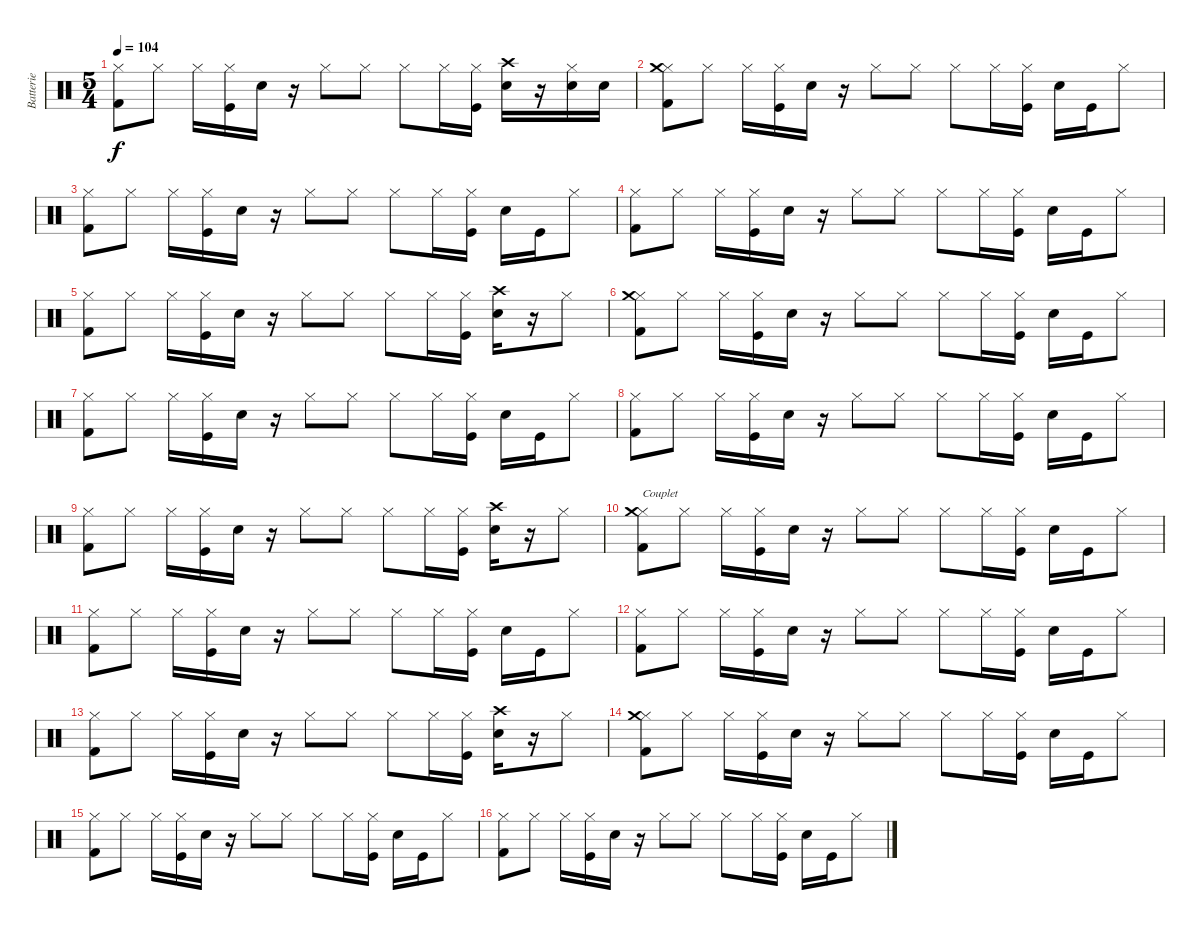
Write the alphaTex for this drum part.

\track ("Batterie" "Batterie") {instrument percussion}
\staff {score}
\articulation defaults
\ts (5 4)
\tempo 104
\clef neutral
\ks c
("Hi-Hat (closed)" "Kick (hit) 2").8{dy f} "Hi-Hat (closed)".8 "Hi-Hat (closed)".16 ("Hi-Hat (closed)" "Kick (hit)").16 "Electric Snare (hit)".16 r.16 "Hi-Hat (closed)".8 "Hi-Hat (closed)".8 "Hi-Hat (closed)".8 "Hi-Hat (closed)".16 ("Hi-Hat (closed)" "Kick (hit)").16 ("Crash high (hit)" "Electric Snare (hit)").16 r.16 ("Hi-Hat (closed)" "Electric Snare (hit)").16 "Electric Snare (hit)".16 |
("Hi-Hat (closed)" "Crash medium (hit)" "Kick (hit) 2").8 "Hi-Hat (closed)".8 "Hi-Hat (closed)".16 ("Hi-Hat (closed)" "Kick (hit)").16 "Electric Snare (hit)".16 r.16 "Hi-Hat (closed)".8 "Hi-Hat (closed)".8 "Hi-Hat (closed)".8 "Hi-Hat (closed)".16 ("Hi-Hat (closed)" "Kick (hit)").16 "Electric Snare (hit)".16 "Kick (hit)".16 "Hi-Hat (closed)".8 |
("Hi-Hat (closed)" "Kick (hit) 2").8 "Hi-Hat (closed)".8 "Hi-Hat (closed)".16 ("Hi-Hat (closed)" "Kick (hit)").16 "Electric Snare (hit)".16 r.16 "Hi-Hat (closed)".8 "Hi-Hat (closed)".8 "Hi-Hat (closed)".8 "Hi-Hat (closed)".16 ("Hi-Hat (closed)" "Kick (hit)").16 "Electric Snare (hit)".16 "Kick (hit)".16 "Hi-Hat (closed)".8 |
("Hi-Hat (closed)" "Kick (hit) 2").8 "Hi-Hat (closed)".8 "Hi-Hat (closed)".16 ("Hi-Hat (closed)" "Kick (hit)").16 "Electric Snare (hit)".16 r.16 "Hi-Hat (closed)".8 "Hi-Hat (closed)".8 "Hi-Hat (closed)".8 "Hi-Hat (closed)".16 ("Hi-Hat (closed)" "Kick (hit)").16 "Electric Snare (hit)".16 "Kick (hit)".16 "Hi-Hat (closed)".8 |
("Hi-Hat (closed)" "Kick (hit) 2").8 "Hi-Hat (closed)".8 "Hi-Hat (closed)".16 ("Hi-Hat (closed)" "Kick (hit)").16 "Electric Snare (hit)".16 r.16 "Hi-Hat (closed)".8 "Hi-Hat (closed)".8 "Hi-Hat (closed)".8 "Hi-Hat (closed)".16 ("Hi-Hat (closed)" "Kick (hit)").16 ("Crash high (hit)" "Electric Snare (hit)").16 r.16 "Hi-Hat (closed)".8 |
("Hi-Hat (closed)" "Crash medium (hit)" "Kick (hit) 2").8 "Hi-Hat (closed)".8 "Hi-Hat (closed)".16 ("Hi-Hat (closed)" "Kick (hit)").16 "Electric Snare (hit)".16 r.16 "Hi-Hat (closed)".8 "Hi-Hat (closed)".8 "Hi-Hat (closed)".8 "Hi-Hat (closed)".16 ("Hi-Hat (closed)" "Kick (hit)").16 "Electric Snare (hit)".16 "Kick (hit)".16 "Hi-Hat (closed)".8 |
("Hi-Hat (closed)" "Kick (hit) 2").8 "Hi-Hat (closed)".8 "Hi-Hat (closed)".16 ("Hi-Hat (closed)" "Kick (hit)").16 "Electric Snare (hit)".16 r.16 "Hi-Hat (closed)".8 "Hi-Hat (closed)".8 "Hi-Hat (closed)".8 "Hi-Hat (closed)".16 ("Hi-Hat (closed)" "Kick (hit)").16 "Electric Snare (hit)".16 "Kick (hit)".16 "Hi-Hat (closed)".8 |
("Hi-Hat (closed)" "Kick (hit) 2").8 "Hi-Hat (closed)".8 "Hi-Hat (closed)".16 ("Hi-Hat (closed)" "Kick (hit)").16 "Electric Snare (hit)".16 r.16 "Hi-Hat (closed)".8 "Hi-Hat (closed)".8 "Hi-Hat (closed)".8 "Hi-Hat (closed)".16 ("Hi-Hat (closed)" "Kick (hit)").16 "Electric Snare (hit)".16 "Kick (hit)".16 "Hi-Hat (closed)".8 |
("Hi-Hat (closed)" "Kick (hit) 2").8 "Hi-Hat (closed)".8 "Hi-Hat (closed)".16 ("Hi-Hat (closed)" "Kick (hit)").16 "Electric Snare (hit)".16 r.16 "Hi-Hat (closed)".8 "Hi-Hat (closed)".8 "Hi-Hat (closed)".8 "Hi-Hat (closed)".16 ("Hi-Hat (closed)" "Kick (hit)").16 ("Crash high (hit)" "Electric Snare (hit)").16 r.16 "Hi-Hat (closed)".8 |
("Hi-Hat (closed)" "Crash medium (hit)" "Kick (hit) 2").8{txt "Couplet"} "Hi-Hat (closed)".8 "Hi-Hat (closed)".16 ("Hi-Hat (closed)" "Kick (hit)").16 "Electric Snare (hit)".16 r.16 "Hi-Hat (closed)".8 "Hi-Hat (closed)".8 "Hi-Hat (closed)".8 "Hi-Hat (closed)".16 ("Hi-Hat (closed)" "Kick (hit)").16 "Electric Snare (hit)".16 "Kick (hit)".16 "Hi-Hat (closed)".8 |
("Hi-Hat (closed)" "Kick (hit) 2").8 "Hi-Hat (closed)".8 "Hi-Hat (closed)".16 ("Hi-Hat (closed)" "Kick (hit)").16 "Electric Snare (hit)".16 r.16 "Hi-Hat (closed)".8 "Hi-Hat (closed)".8 "Hi-Hat (closed)".8 "Hi-Hat (closed)".16 ("Hi-Hat (closed)" "Kick (hit)").16 "Electric Snare (hit)".16 "Kick (hit)".16 "Hi-Hat (closed)".8 |
("Hi-Hat (closed)" "Kick (hit) 2").8 "Hi-Hat (closed)".8 "Hi-Hat (closed)".16 ("Hi-Hat (closed)" "Kick (hit)").16 "Electric Snare (hit)".16 r.16 "Hi-Hat (closed)".8 "Hi-Hat (closed)".8 "Hi-Hat (closed)".8 "Hi-Hat (closed)".16 ("Hi-Hat (closed)" "Kick (hit)").16 "Electric Snare (hit)".16 "Kick (hit)".16 "Hi-Hat (closed)".8 |
("Hi-Hat (closed)" "Kick (hit) 2").8 "Hi-Hat (closed)".8 "Hi-Hat (closed)".16 ("Hi-Hat (closed)" "Kick (hit)").16 "Electric Snare (hit)".16 r.16 "Hi-Hat (closed)".8 "Hi-Hat (closed)".8 "Hi-Hat (closed)".8 "Hi-Hat (closed)".16 ("Hi-Hat (closed)" "Kick (hit)").16 ("Crash high (hit)" "Electric Snare (hit)").16 r.16 "Hi-Hat (closed)".8 |
("Hi-Hat (closed)" "Crash medium (hit)" "Kick (hit) 2").8 "Hi-Hat (closed)".8 "Hi-Hat (closed)".16 ("Hi-Hat (closed)" "Kick (hit)").16 "Electric Snare (hit)".16 r.16 "Hi-Hat (closed)".8 "Hi-Hat (closed)".8 "Hi-Hat (closed)".8 "Hi-Hat (closed)".16 ("Hi-Hat (closed)" "Kick (hit)").16 "Electric Snare (hit)".16 "Kick (hit)".16 "Hi-Hat (closed)".8 |
("Hi-Hat (closed)" "Kick (hit) 2").8 "Hi-Hat (closed)".8 "Hi-Hat (closed)".16 ("Hi-Hat (closed)" "Kick (hit)").16 "Electric Snare (hit)".16 r.16 "Hi-Hat (closed)".8 "Hi-Hat (closed)".8 "Hi-Hat (closed)".8 "Hi-Hat (closed)".16 ("Hi-Hat (closed)" "Kick (hit)").16 "Electric Snare (hit)".16 "Kick (hit)".16 "Hi-Hat (closed)".8 |
("Hi-Hat (closed)" "Kick (hit) 2").8 "Hi-Hat (closed)".8 "Hi-Hat (closed)".16 ("Hi-Hat (closed)" "Kick (hit)").16 "Electric Snare (hit)".16 r.16 "Hi-Hat (closed)".8 "Hi-Hat (closed)".8 "Hi-Hat (closed)".8 "Hi-Hat (closed)".16 ("Hi-Hat (closed)" "Kick (hit)").16 "Electric Snare (hit)".16 "Kick (hit)".16 "Hi-Hat (closed)".8
